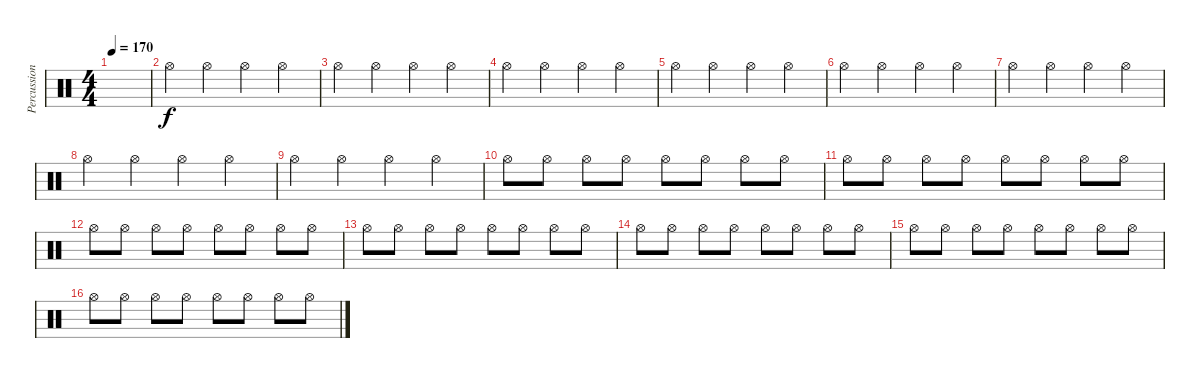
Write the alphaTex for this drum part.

\track ("Percussion" "Percussion") {instrument percussion}
\staff {score}
\articulation defaults
\ts (4 4)
\tempo 170
\clef neutral
\ks c
|
"Hi-Hat (open)".4 "Hi-Hat (open)".4 "Hi-Hat (open)".4 "Hi-Hat (open)".4 |
"Hi-Hat (open)".4 "Hi-Hat (open)".4 "Hi-Hat (open)".4 "Hi-Hat (open)".4 |
"Hi-Hat (open)".4 "Hi-Hat (open)".4 "Hi-Hat (open)".4 "Hi-Hat (open)".4 |
"Hi-Hat (open)".4 "Hi-Hat (open)".4 "Hi-Hat (open)".4 "Hi-Hat (open)".4 |
"Hi-Hat (open)".4 "Hi-Hat (open)".4 "Hi-Hat (open)".4 "Hi-Hat (open)".4 |
"Hi-Hat (open)".4 "Hi-Hat (open)".4 "Hi-Hat (open)".4 "Hi-Hat (open)".4 |
"Hi-Hat (open)".4 "Hi-Hat (open)".4 "Hi-Hat (open)".4 "Hi-Hat (open)".4 |
"Hi-Hat (open)".4 "Hi-Hat (open)".4 "Hi-Hat (open)".4 "Hi-Hat (open)".4 |
"Hi-Hat (open)".8 "Hi-Hat (open)".8 "Hi-Hat (open)".8 "Hi-Hat (open)".8 "Hi-Hat (open)".8 "Hi-Hat (open)".8 "Hi-Hat (open)".8 "Hi-Hat (open)".8 |
"Hi-Hat (open)".8 "Hi-Hat (open)".8 "Hi-Hat (open)".8 "Hi-Hat (open)".8 "Hi-Hat (open)".8 "Hi-Hat (open)".8 "Hi-Hat (open)".8 "Hi-Hat (open)".8 |
"Hi-Hat (open)".8 "Hi-Hat (open)".8 "Hi-Hat (open)".8 "Hi-Hat (open)".8 "Hi-Hat (open)".8 "Hi-Hat (open)".8 "Hi-Hat (open)".8 "Hi-Hat (open)".8 |
"Hi-Hat (open)".8 "Hi-Hat (open)".8 "Hi-Hat (open)".8 "Hi-Hat (open)".8 "Hi-Hat (open)".8 "Hi-Hat (open)".8 "Hi-Hat (open)".8 "Hi-Hat (open)".8 |
"Hi-Hat (open)".8 "Hi-Hat (open)".8 "Hi-Hat (open)".8 "Hi-Hat (open)".8 "Hi-Hat (open)".8 "Hi-Hat (open)".8 "Hi-Hat (open)".8 "Hi-Hat (open)".8 |
"Hi-Hat (open)".8 "Hi-Hat (open)".8 "Hi-Hat (open)".8 "Hi-Hat (open)".8 "Hi-Hat (open)".8 "Hi-Hat (open)".8 "Hi-Hat (open)".8 "Hi-Hat (open)".8 |
"Hi-Hat (open)".8 "Hi-Hat (open)".8 "Hi-Hat (open)".8 "Hi-Hat (open)".8 "Hi-Hat (open)".8 "Hi-Hat (open)".8 "Hi-Hat (open)".8 "Hi-Hat (open)".8
